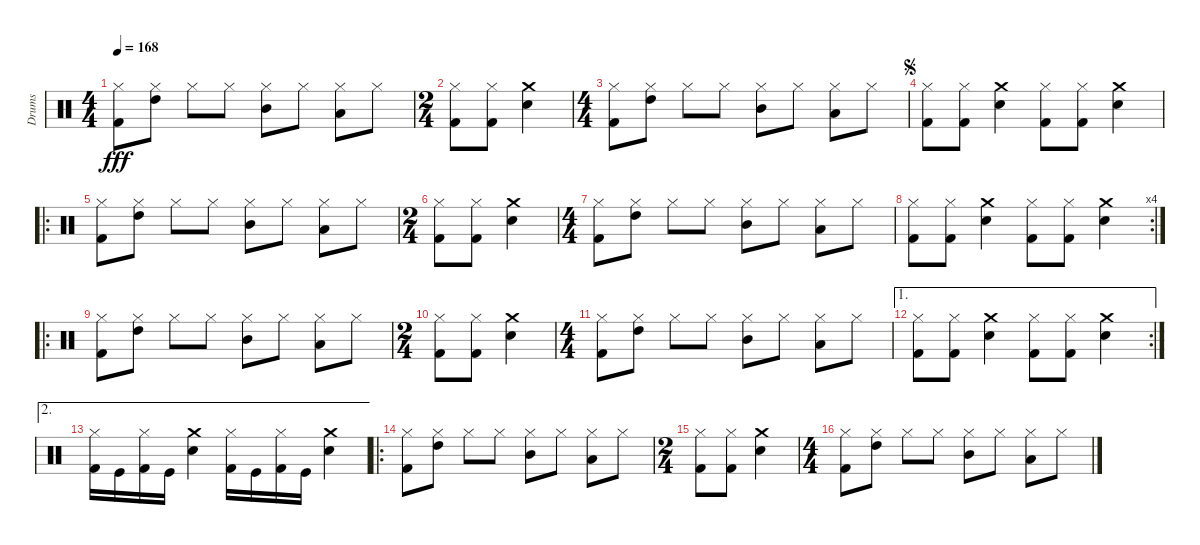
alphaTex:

\track ("Drums" "Drums") {instrument percussion}
\staff {score}
\articulation defaults
\ts (4 4)
\tempo 168
\clef neutral
\ks c
("Hi-Hat (closed)" "Kick (hit) 2").8{dy fff} ("High Tom (hit)" "Hi-Hat (closed)").8{balance 16} "Hi-Hat (closed)".8{balance 8} "Hi-Hat (closed)".8 ("Mid Tom (hit)" "Hi-Hat (closed)").8 "Hi-Hat (closed)".8 ("Low Tom (hit)" "Hi-Hat (closed)").8{balance 0} "Hi-Hat (closed)".8{balance 8} |
\ts (2 4)
("Hi-Hat (closed)" "Kick (hit) 2").8 ("Hi-Hat (closed)" "Kick (hit) 2").8 ("Crash medium (hit)" "Snare (hit) 2").4 |
\ts (4 4)
("Hi-Hat (closed)" "Kick (hit) 2").8 ("High Tom (hit)" "Hi-Hat (closed)").8{balance 16} "Hi-Hat (closed)".8{balance 8} "Hi-Hat (closed)".8 ("Mid Tom (hit)" "Hi-Hat (closed)").8 "Hi-Hat (closed)".8 ("Low Tom (hit)" "Hi-Hat (closed)").8{balance 0} "Hi-Hat (closed)".8{balance 8} |
\jump segno
("Hi-Hat (closed)" "Kick (hit) 2").8 ("Hi-Hat (closed)" "Kick (hit) 2").8 ("Snare (hit) 2" "Crash medium (hit)").4 ("Kick (hit) 2" "Hi-Hat (closed)").8 ("Kick (hit) 2" "Hi-Hat (closed)").8 ("Crash medium (hit)" "Snare (hit) 2").4 |
\ro
("Hi-Hat (closed)" "Kick (hit) 2").8 ("High Tom (hit)" "Hi-Hat (closed)").8{balance 16} "Hi-Hat (closed)".8{balance 8} "Hi-Hat (closed)".8 ("Mid Tom (hit)" "Hi-Hat (closed)").8 "Hi-Hat (closed)".8 ("Low Tom (hit)" "Hi-Hat (closed)").8{balance 0} "Hi-Hat (closed)".8{balance 8} |
\ts (2 4)
("Kick (hit) 2" "Hi-Hat (closed)").8 ("Kick (hit) 2" "Hi-Hat (closed)").8 ("Snare (hit) 2" "Crash medium (hit)").4 |
\ts (4 4)
("Hi-Hat (closed)" "Kick (hit) 2").8 ("High Tom (hit)" "Hi-Hat (closed)").8{balance 16} "Hi-Hat (closed)".8{balance 8} "Hi-Hat (closed)".8 ("Mid Tom (hit)" "Hi-Hat (closed)").8 "Hi-Hat (closed)".8 ("Hi-Hat (closed)" "Low Tom (hit)").8{balance 0} "Hi-Hat (closed)".8{balance 8} |
\rc 4
("Hi-Hat (closed)" "Kick (hit) 2").8 ("Hi-Hat (closed)" "Kick (hit) 2").8 ("Snare (hit) 2" "Crash medium (hit)").4 ("Kick (hit) 2" "Hi-Hat (closed)").8 ("Kick (hit) 2" "Hi-Hat (closed)").8 ("Crash medium (hit)" "Snare (hit) 2").4 |
\ro
("Hi-Hat (closed)" "Kick (hit) 2").8 ("High Tom (hit)" "Hi-Hat (closed)").8{balance 16} "Hi-Hat (closed)".8{balance 8} "Hi-Hat (closed)".8 ("Mid Tom (hit)" "Hi-Hat (closed)").8 "Hi-Hat (closed)".8 ("Low Tom (hit)" "Hi-Hat (closed)").8{balance 0} "Hi-Hat (closed)".8{balance 8} |
\ts (2 4)
("Kick (hit) 2" "Hi-Hat (closed)").8 ("Kick (hit) 2" "Hi-Hat (closed)").8 ("Snare (hit) 2" "Crash medium (hit)").4 |
\ts (4 4)
("Hi-Hat (closed)" "Kick (hit) 2").8 ("High Tom (hit)" "Hi-Hat (closed)").8{balance 16} "Hi-Hat (closed)".8{balance 8} "Hi-Hat (closed)".8 ("Mid Tom (hit)" "Hi-Hat (closed)").8 "Hi-Hat (closed)".8 ("Hi-Hat (closed)" "Low Tom (hit)").8{balance 0} "Hi-Hat (closed)".8{balance 8} |
\ae 1
\rc 2
("Hi-Hat (closed)" "Kick (hit) 2").8 ("Hi-Hat (closed)" "Kick (hit) 2").8 ("Snare (hit) 2" "Crash medium (hit)").4 ("Kick (hit) 2" "Hi-Hat (closed)").8 ("Kick (hit) 2" "Hi-Hat (closed)").8 ("Crash medium (hit)" "Snare (hit) 2").4 |
\ae 2
("Kick (hit) 2" "Hi-Hat (closed)").16 "Kick (hit)".16 ("Kick (hit) 2" "Hi-Hat (closed)").16 "Kick (hit)".16 ("Snare (hit) 2" "Crash medium (hit)").4 ("Kick (hit) 2" "Hi-Hat (closed)").16 "Kick (hit)".16 ("Kick (hit) 2" "Hi-Hat (closed)").16 "Kick (hit)".16 ("Crash medium (hit)" "Snare (hit) 2").4 |
\ro
("Hi-Hat (closed)" "Kick (hit) 2").8 ("High Tom (hit)" "Hi-Hat (closed)").8{balance 16} "Hi-Hat (closed)".8{balance 8} "Hi-Hat (closed)".8 ("Mid Tom (hit)" "Hi-Hat (closed)").8 "Hi-Hat (closed)".8 ("Low Tom (hit)" "Hi-Hat (closed)").8{balance 0} "Hi-Hat (closed)".8{balance 8} |
\ts (2 4)
("Kick (hit) 2" "Hi-Hat (closed)").8 ("Kick (hit) 2" "Hi-Hat (closed)").8 ("Snare (hit) 2" "Crash medium (hit)").4 |
\ts (4 4)
("Hi-Hat (closed)" "Kick (hit) 2").8 ("High Tom (hit)" "Hi-Hat (closed)").8{balance 16} "Hi-Hat (closed)".8{balance 8} "Hi-Hat (closed)".8 ("Mid Tom (hit)" "Hi-Hat (closed)").8 "Hi-Hat (closed)".8 ("Hi-Hat (closed)" "Low Tom (hit)").8{balance 0} "Hi-Hat (closed)".8{balance 8}
